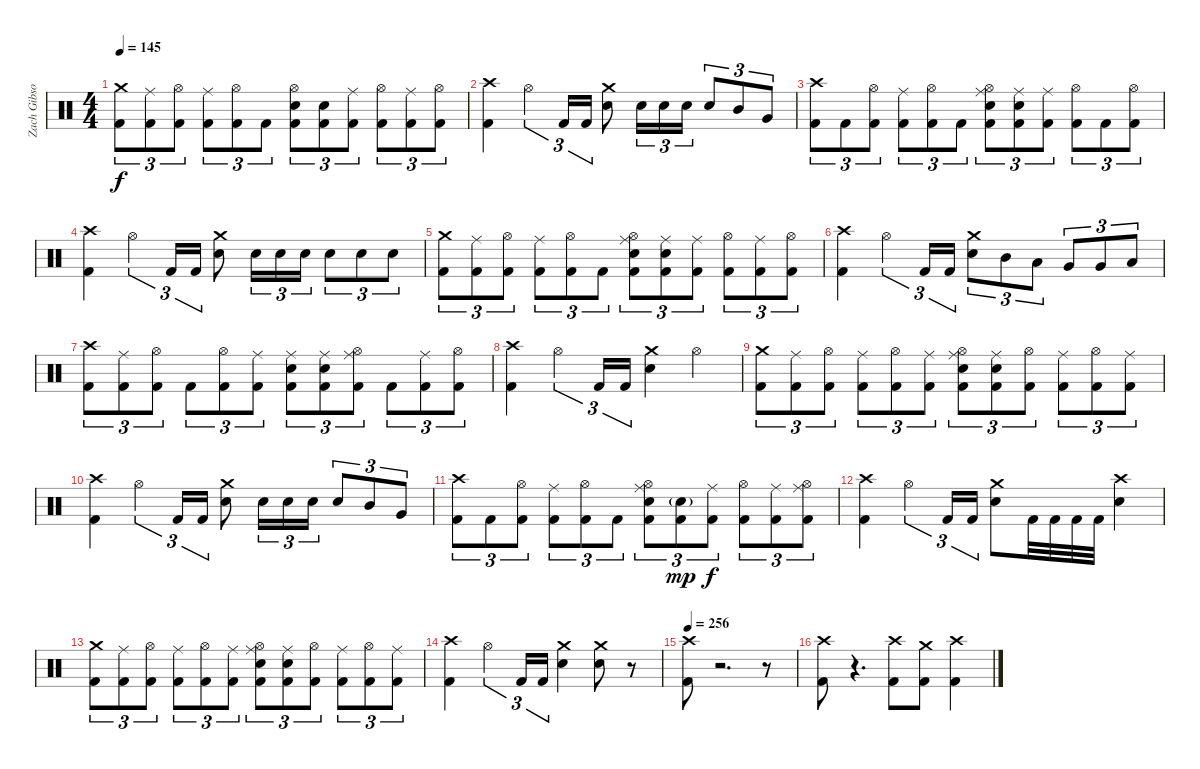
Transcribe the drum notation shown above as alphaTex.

\track ("Zach Gibson (Drums)" "Zach Gibso") {instrument percussion}
\staff {score}
\articulation defaults
\ts (4 4)
\tempo 145
\clef neutral
\ks c
("Crash medium (hit)" "Kick (hit) 2").8{tu (3 2) dy f} ("Ride (middle)" "Kick (hit) 2").8{tu (3 2)} ("Hi-Hat (open)" "Kick (hit) 2").8{tu (3 2)} ("Ride (middle)" "Kick (hit) 2").8{tu (3 2)} ("Hi-Hat (open)" "Kick (hit) 2").8{tu (3 2)} "Kick (hit) 2".8{tu (3 2)} ("Snare (hit) 2" "Hi-Hat (open)" "Kick (hit) 2").8{tu (3 2)} ("Snare (hit) 2" "Kick (hit) 2").8{tu (3 2)} ("Ride (middle)" "Kick (hit) 2").8{tu (3 2)} ("Hi-Hat (open)" "Kick (hit) 2").8{tu (3 2)} ("Ride (middle)" "Kick (hit) 2").8{tu (3 2)} ("Hi-Hat (open)" "Kick (hit) 2").8{tu (3 2)} |
("Crash high (hit)" "Kick (hit) 2").4 "Hi-Hat (open)".4{tu (3 2)} "Kick (hit) 2".16{tu (3 2)} "Kick (hit) 2".16{tu (3 2)} ("Crash medium (hit)" "Snare (hit) 2").8 "Snare (hit) 2".16{tu (3 2)} "Snare (hit) 2".16{tu (3 2)} "Snare (hit) 2".16{tu (3 2)} "Snare (hit) 2".8{tu (3 2)} "Mid Tom (hit)".8{tu (3 2)} "Very Low Tom (hit)".8{tu (3 2)} |
("Crash high (hit)" "Kick (hit) 2").8{tu (3 2)} "Kick (hit) 2".8{tu (3 2)} ("Hi-Hat (open)" "Kick (hit) 2").8{tu (3 2)} ("Ride (middle)" "Kick (hit) 2").8{tu (3 2)} ("Hi-Hat (open)" "Kick (hit) 2").8{tu (3 2)} "Kick (hit) 2".8{tu (3 2)} ("Ride (middle)" "Snare (hit) 2" "Hi-Hat (open)" "Kick (hit) 2").8{tu (3 2)} ("Ride (middle)" "Snare (hit) 2" "Kick (hit) 2").8{tu (3 2)} ("Ride (middle)" "Kick (hit) 2").8{tu (3 2)} ("Hi-Hat (open)" "Kick (hit) 2").8{tu (3 2)} "Kick (hit) 2".8{tu (3 2)} ("Hi-Hat (open)" "Kick (hit) 2").8{tu (3 2)} |
("Crash high (hit)" "Kick (hit) 2").4 "Hi-Hat (open)".4{tu (3 2)} "Kick (hit) 2".16{tu (3 2)} "Kick (hit) 2".16{tu (3 2)} ("Crash medium (hit)" "Snare (hit) 2").8 "Snare (hit) 2".16{tu (3 2)} "Snare (hit) 2".16{tu (3 2)} "Snare (hit) 2".16{tu (3 2)} "Snare (hit) 2".8{tu (3 2)} "Snare (hit) 2".8{tu (3 2)} "Snare (hit) 2".8{tu (3 2)} |
("Crash medium (hit)" "Kick (hit) 2").8{tu (3 2)} ("Ride (middle)" "Kick (hit) 2").8{tu (3 2)} ("Hi-Hat (open)" "Kick (hit) 2").8{tu (3 2)} ("Ride (middle)" "Kick (hit) 2").8{tu (3 2)} ("Hi-Hat (open)" "Kick (hit) 2").8{tu (3 2)} "Kick (hit) 2".8{tu (3 2)} ("Ride (middle)" "Snare (hit) 2" "Hi-Hat (open)" "Kick (hit) 2").8{tu (3 2)} ("Ride (middle)" "Snare (hit) 2" "Kick (hit) 2").8{tu (3 2)} ("Ride (middle)" "Kick (hit) 2").8{tu (3 2)} ("Hi-Hat (open)" "Kick (hit) 2").8{tu (3 2)} ("Ride (middle)" "Kick (hit) 2").8{tu (3 2)} ("Hi-Hat (open)" "Kick (hit) 2").8{tu (3 2)} |
("Crash high (hit)" "Kick (hit) 2").4 "Hi-Hat (open)".4{tu (3 2)} "Kick (hit) 2".16{tu (3 2)} "Kick (hit) 2".16{tu (3 2)} ("Crash medium (hit)" "Snare (hit) 2").8{tu (3 2)} "Mid Tom (hit)".8{tu (3 2)} "Low Tom (hit)".8{tu (3 2)} "Very Low Tom (hit)".8{tu (3 2)} "Very Low Tom (hit)".8{tu (3 2)} "Low Floor Tom (hit)".8{tu (3 2)} |
("Crash high (hit)" "Kick (hit) 2").8{tu (3 2)} ("Ride (middle)" "Kick (hit) 2").8{tu (3 2)} ("Hi-Hat (open)" "Kick (hit) 2").8{tu (3 2)} "Kick (hit) 2".8{tu (3 2)} ("Hi-Hat (open)" "Kick (hit) 2").8{tu (3 2)} ("Ride (middle)" "Kick (hit) 2").8{tu (3 2)} ("Ride (middle)" "Snare (hit) 2" "Kick (hit) 2").8{tu (3 2)} ("Ride (middle)" "Snare (hit) 2" "Kick (hit) 2").8{tu (3 2)} ("Ride (middle)" "Hi-Hat (open)" "Kick (hit) 2").8{tu (3 2)} "Kick (hit) 2".8{tu (3 2)} ("Ride (middle)" "Kick (hit) 2").8{tu (3 2)} ("Hi-Hat (open)" "Kick (hit) 2").8{tu (3 2)} |
("Crash high (hit)" "Kick (hit) 2").4 "Hi-Hat (open)".4{tu (3 2)} "Kick (hit) 2".16{tu (3 2)} "Kick (hit) 2".16{tu (3 2)} ("Crash medium (hit)" "Snare (hit) 2").4 "Hi-Hat (open)".4 |
("Crash medium (hit)" "Kick (hit) 2").8{tu (3 2)} ("Ride (middle)" "Kick (hit) 2").8{tu (3 2)} ("Hi-Hat (open)" "Kick (hit) 2").8{tu (3 2)} ("Ride (middle)" "Kick (hit) 2").8{tu (3 2)} ("Hi-Hat (open)" "Kick (hit) 2").8{tu (3 2)} ("Ride (middle)" "Kick (hit) 2").8{tu (3 2)} ("Ride (middle)" "Snare (hit) 2" "Hi-Hat (open)" "Kick (hit) 2").8{tu (3 2)} ("Ride (middle)" "Snare (hit) 2" "Kick (hit) 2").8{tu (3 2)} ("Hi-Hat (open)" "Kick (hit) 2").8{tu (3 2)} ("Ride (middle)" "Kick (hit) 2").8{tu (3 2)} ("Hi-Hat (open)" "Kick (hit) 2").8{tu (3 2)} ("Ride (middle)" "Kick (hit) 2").8{tu (3 2)} |
("Crash high (hit)" "Kick (hit) 2").4 "Hi-Hat (open)".4{tu (3 2)} "Kick (hit) 2".16{tu (3 2)} "Kick (hit) 2".16{tu (3 2)} ("Crash medium (hit)" "Snare (hit) 2").8 "Snare (hit) 2".16{tu (3 2)} "Snare (hit) 2".16{tu (3 2)} "Snare (hit) 2".16{tu (3 2)} "Snare (hit) 2".8{tu (3 2)} "Mid Tom (hit)".8{tu (3 2)} "Very Low Tom (hit)".8{tu (3 2)} |
("Crash high (hit)" "Kick (hit) 2").8{tu (3 2)} "Kick (hit) 2".8{tu (3 2)} ("Hi-Hat (open)" "Kick (hit) 2").8{tu (3 2)} ("Ride (middle)" "Kick (hit) 2").8{tu (3 2)} ("Hi-Hat (open)" "Kick (hit) 2").8{tu (3 2)} "Kick (hit) 2".8{tu (3 2)} ("Ride (middle)" "Snare (hit) 2" "Hi-Hat (open)" "Kick (hit) 2").8{tu (3 2)} ("Snare (hit) 2"{g} "Kick (hit) 2").8{tu (3 2) dy mp} ("Ride (middle)" "Kick (hit) 2").8{tu (3 2) dy f} ("Hi-Hat (open)" "Kick (hit) 2").8{tu (3 2)} ("Ride (middle)" "Kick (hit) 2").8{tu (3 2)} ("Ride (middle)" "Hi-Hat (open)" "Kick (hit) 2").8{tu (3 2)} |
("Crash high (hit)" "Kick (hit) 2").4 "Hi-Hat (open)".4{tu (3 2)} "Kick (hit) 2".16{tu (3 2)} "Kick (hit) 2".16{tu (3 2)} ("Crash medium (hit)" "Snare (hit) 2").8 "Kick (hit) 2".32 "Kick (hit) 2".32 "Kick (hit) 2".32 "Kick (hit) 2".32 ("Crash high (hit)" "Snare (hit) 2").4 |
("Crash medium (hit)" "Kick (hit) 2").8{tu (3 2)} ("Ride (middle)" "Kick (hit) 2").8{tu (3 2)} ("Hi-Hat (open)" "Kick (hit) 2").8{tu (3 2)} ("Ride (middle)" "Kick (hit) 2").8{tu (3 2)} ("Hi-Hat (open)" "Kick (hit) 2").8{tu (3 2)} ("Ride (middle)" "Kick (hit) 2").8{tu (3 2)} ("Ride (middle)" "Snare (hit) 2" "Hi-Hat (open)" "Kick (hit) 2").8{tu (3 2)} ("Ride (middle)" "Snare (hit) 2" "Kick (hit) 2").8{tu (3 2)} ("Hi-Hat (open)" "Kick (hit) 2").8{tu (3 2)} ("Ride (middle)" "Kick (hit) 2").8{tu (3 2)} ("Hi-Hat (open)" "Kick (hit) 2").8{tu (3 2)} ("Ride (middle)" "Kick (hit) 2").8{tu (3 2)} |
("Crash high (hit)" "Kick (hit) 2").4 "Hi-Hat (open)".4{tu (3 2)} "Kick (hit) 2".16{tu (3 2)} "Kick (hit) 2".16{tu (3 2)} ("Crash medium (hit)" "Snare (hit) 2").4 ("Crash medium (hit)" "Snare (hit) 2").8 r.8{volume 0} |
\tempo 256
("Crash high (hit)" "Kick (hit) 2").8{volume 16} r.2{d volume 0} r.8 |
("Crash high (hit)" "Kick (hit) 2").8{volume 16} r.4{d volume 0} ("Crash high (hit)" "Kick (hit) 2").8{volume 16} ("Crash medium (hit)" "Kick (hit) 2").8 ("Crash high (hit)" "Kick (hit) 2").4
